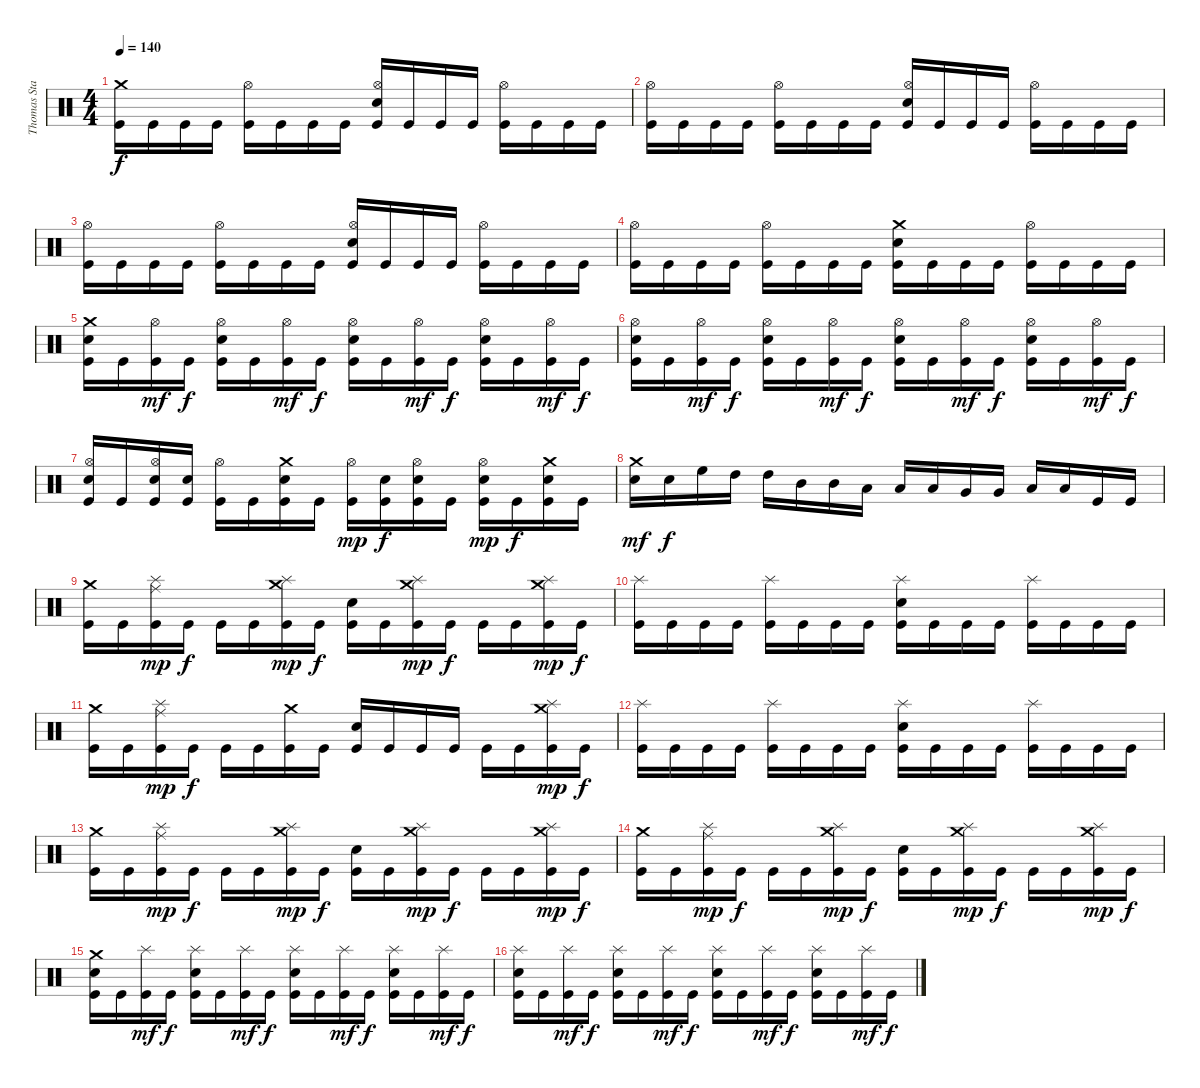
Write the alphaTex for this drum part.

\track ("Thomas Stauch" "Thomas Sta") {instrument percussion}
\staff {score}
\articulation defaults
\ts (4 4)
\tempo 140
\clef neutral
\ks c
("Crash medium (hit)" "Kick (hit)").16{dy f} "Kick (hit)".16 "Kick (hit)".16 "Kick (hit)".16 ("Hi-Hat (open)" "Kick (hit)").16 "Kick (hit)".16 "Kick (hit)".16 "Kick (hit)".16 ("Hi-Hat (open)" "Electric Snare (hit)" "Kick (hit)").16 "Kick (hit)".16 "Kick (hit)".16 "Kick (hit)".16 ("Hi-Hat (open)" "Kick (hit)").16 "Kick (hit)".16 "Kick (hit)".16 "Kick (hit)".16 |
("Hi-Hat (open)" "Kick (hit)").16 "Kick (hit)".16 "Kick (hit)".16 "Kick (hit)".16 ("Hi-Hat (open)" "Kick (hit)").16 "Kick (hit)".16 "Kick (hit)".16 "Kick (hit)".16 ("Hi-Hat (open)" "Electric Snare (hit)" "Kick (hit)").16 "Kick (hit)".16 "Kick (hit)".16 "Kick (hit)".16 ("Hi-Hat (open)" "Kick (hit)").16 "Kick (hit)".16 "Kick (hit)".16 "Kick (hit)".16 |
("Hi-Hat (open)" "Kick (hit)").16 "Kick (hit)".16 "Kick (hit)".16 "Kick (hit)".16 ("Hi-Hat (open)" "Kick (hit)").16 "Kick (hit)".16 "Kick (hit)".16 "Kick (hit)".16 ("Hi-Hat (open)" "Electric Snare (hit)" "Kick (hit)").16 "Kick (hit)".16 "Kick (hit)".16 "Kick (hit)".16 ("Hi-Hat (open)" "Kick (hit)").16 "Kick (hit)".16 "Kick (hit)".16 "Kick (hit)".16 |
("Hi-Hat (open)" "Kick (hit)").16 "Kick (hit)".16 "Kick (hit)".16 "Kick (hit)".16 ("Hi-Hat (open)" "Kick (hit)").16 "Kick (hit)".16 "Kick (hit)".16 "Kick (hit)".16 ("Crash medium (hit)" "Electric Snare (hit)" "Kick (hit)").16 "Kick (hit)".16 "Kick (hit)".16 "Kick (hit)".16 ("Hi-Hat (open)" "Kick (hit)").16 "Kick (hit)".16 "Kick (hit)".16 "Kick (hit)".16 |
("Crash medium (hit)" "Electric Snare (hit)" "Kick (hit)").16 "Kick (hit)".16 ("Hi-Hat (open)" "Kick (hit)").16{dy mf} "Kick (hit)".16{dy f} ("Hi-Hat (open)" "Electric Snare (hit)" "Kick (hit)").16 "Kick (hit)".16 ("Hi-Hat (open)" "Kick (hit)").16{dy mf} "Kick (hit)".16{dy f} ("Hi-Hat (open)" "Electric Snare (hit)" "Kick (hit)").16 "Kick (hit)".16 ("Hi-Hat (open)" "Kick (hit)").16{dy mf} "Kick (hit)".16{dy f} ("Hi-Hat (open)" "Electric Snare (hit)" "Kick (hit)").16 "Kick (hit)".16 ("Hi-Hat (open)" "Kick (hit)").16{dy mf} "Kick (hit)".16{dy f} |
("Hi-Hat (open)" "Electric Snare (hit)" "Kick (hit)").16 "Kick (hit)".16 ("Hi-Hat (open)" "Kick (hit)").16{dy mf} "Kick (hit)".16{dy f} ("Hi-Hat (open)" "Electric Snare (hit)" "Kick (hit)").16 "Kick (hit)".16 ("Hi-Hat (open)" "Kick (hit)").16{dy mf} "Kick (hit)".16{dy f} ("Hi-Hat (open)" "Electric Snare (hit)" "Kick (hit)").16 "Kick (hit)".16 ("Hi-Hat (open)" "Kick (hit)").16{dy mf} "Kick (hit)".16{dy f} ("Hi-Hat (open)" "Electric Snare (hit)" "Kick (hit)").16 "Kick (hit)".16 ("Hi-Hat (open)" "Kick (hit)").16{dy mf} "Kick (hit)".16{dy f} |
("Hi-Hat (open)" "Electric Snare (hit)" "Kick (hit)").16 "Kick (hit)".16 ("Hi-Hat (open)" "Electric Snare (hit)" "Kick (hit)").16 ("Electric Snare (hit)" "Kick (hit)").16 ("Hi-Hat (open)" "Kick (hit)").16 "Kick (hit)".16 ("Crash medium (hit)" "Electric Snare (hit)" "Kick (hit)").16 "Kick (hit)".16 ("Hi-Hat (open)" "Kick (hit)").16{dy mp} ("Electric Snare (hit)" "Kick (hit)").16{dy f} ("Hi-Hat (open)" "Electric Snare (hit)" "Kick (hit)").16 "Kick (hit)".16 ("Hi-Hat (open)" "Electric Snare (hit)" "Kick (hit)").16{dy mp} "Kick (hit)".16{dy f} ("Crash medium (hit)" "Electric Snare (hit)" "Kick (hit)").16 "Kick (hit)".16 |
("Crash medium (hit)" "Electric Snare (hit)").16{dy mf} "Electric Snare (hit)".16{dy f} "High Floor Tom (hit)".16 "High Tom (hit)".16 "High Tom (hit)".16 "Mid Tom (hit)".16 "Mid Tom (hit)".16 "Low Tom (hit)".16 "Low Tom (hit)".16 "Low Tom (hit)".16 "Very Low Tom (hit)".16 "Very Low Tom (hit)".16 "Low Floor Tom (hit)".16 "Low Floor Tom (hit)".16 "Kick (hit)".16 "Kick (hit)".16 |
("Crash medium (hit)" "Kick (hit)").16 "Kick (hit)".16 ("Splash (hit)" "Ride (middle)" "Kick (hit)").16{dy mp} "Kick (hit)".16{dy f} "Kick (hit)".16 "Kick (hit)".16 ("Crash medium (hit)" "Splash (hit)" "Kick (hit)").16{dy mp} "Kick (hit)".16{dy f} ("Electric Snare (hit)" "Kick (hit)").16 "Kick (hit)".16 ("Crash medium (hit)" "Splash (hit)" "Kick (hit)").16{dy mp} "Kick (hit)".16{dy f} "Kick (hit)".16 "Kick (hit)".16 ("Crash medium (hit)" "Splash (hit)" "Kick (hit)").16{dy mp} "Kick (hit)".16{dy f} |
("Splash (hit)" "Kick (hit)").16 "Kick (hit)".16 "Kick (hit)".16 "Kick (hit)".16 ("Splash (hit)" "Kick (hit)").16 "Kick (hit)".16 "Kick (hit)".16 "Kick (hit)".16 ("Splash (hit)" "Electric Snare (hit)" "Kick (hit)").16 "Kick (hit)".16 "Kick (hit)".16 "Kick (hit)".16 ("Splash (hit)" "Kick (hit)").16 "Kick (hit)".16 "Kick (hit)".16 "Kick (hit)".16 |
("Crash medium (hit)" "Kick (hit)").16 "Kick (hit)".16 ("Splash (hit)" "Ride (middle)" "Kick (hit)").16{dy mp} "Kick (hit)".16{dy f} "Kick (hit)".16 "Kick (hit)".16 ("Crash medium (hit)" "Kick (hit)").16 "Kick (hit)".16 ("Electric Snare (hit)" "Kick (hit)").16 "Kick (hit)".16 "Kick (hit)".16 "Kick (hit)".16 "Kick (hit)".16 "Kick (hit)".16 ("Splash (hit)" "Crash medium (hit)" "Kick (hit)").16{dy mp} "Kick (hit)".16{dy f} |
("Splash (hit)" "Kick (hit)").16 "Kick (hit)".16 "Kick (hit)".16 "Kick (hit)".16 ("Splash (hit)" "Kick (hit)").16 "Kick (hit)".16 "Kick (hit)".16 "Kick (hit)".16 ("Splash (hit)" "Electric Snare (hit)" "Kick (hit)").16 "Kick (hit)".16 "Kick (hit)".16 "Kick (hit)".16 ("Splash (hit)" "Kick (hit)").16 "Kick (hit)".16 "Kick (hit)".16 "Kick (hit)".16 |
("Crash medium (hit)" "Kick (hit)").16 "Kick (hit)".16 ("Splash (hit)" "Ride (middle)" "Kick (hit)").16{dy mp} "Kick (hit)".16{dy f} "Kick (hit)".16 "Kick (hit)".16 ("Crash medium (hit)" "Splash (hit)" "Kick (hit)").16{dy mp} "Kick (hit)".16{dy f} ("Electric Snare (hit)" "Kick (hit)").16 "Kick (hit)".16 ("Crash medium (hit)" "Splash (hit)" "Kick (hit)").16{dy mp} "Kick (hit)".16{dy f} "Kick (hit)".16 "Kick (hit)".16 ("Crash medium (hit)" "Splash (hit)" "Kick (hit)").16{dy mp} "Kick (hit)".16{dy f} |
("Crash medium (hit)" "Kick (hit)").16 "Kick (hit)".16 ("Splash (hit)" "Ride (middle)" "Kick (hit)").16{dy mp} "Kick (hit)".16{dy f} "Kick (hit)".16 "Kick (hit)".16 ("Crash medium (hit)" "Splash (hit)" "Kick (hit)").16{dy mp} "Kick (hit)".16{dy f} ("Electric Snare (hit)" "Kick (hit)").16 "Kick (hit)".16 ("Crash medium (hit)" "Splash (hit)" "Kick (hit)").16{dy mp} "Kick (hit)".16{dy f} "Kick (hit)".16 "Kick (hit)".16 ("Crash medium (hit)" "Splash (hit)" "Kick (hit)").16{dy mp} "Kick (hit)".16{dy f} |
("Crash medium (hit)" "Electric Snare (hit)" "Kick (hit)").16 "Kick (hit)".16 ("Splash (hit)" "Kick (hit)").16{dy mf} "Kick (hit)".16{dy f} ("Splash (hit)" "Electric Snare (hit)" "Kick (hit)").16 "Kick (hit)".16 ("Splash (hit)" "Kick (hit)").16{dy mf} "Kick (hit)".16{dy f} ("Splash (hit)" "Electric Snare (hit)" "Kick (hit)").16 "Kick (hit)".16 ("Splash (hit)" "Kick (hit)").16{dy mf} "Kick (hit)".16{dy f} ("Splash (hit)" "Electric Snare (hit)" "Kick (hit)").16 "Kick (hit)".16 ("Splash (hit)" "Kick (hit)").16{dy mf} "Kick (hit)".16{dy f} |
("Splash (hit)" "Electric Snare (hit)" "Kick (hit)").16 "Kick (hit)".16 ("Splash (hit)" "Kick (hit)").16{dy mf} "Kick (hit)".16{dy f} ("Splash (hit)" "Electric Snare (hit)" "Kick (hit)").16 "Kick (hit)".16 ("Splash (hit)" "Kick (hit)").16{dy mf} "Kick (hit)".16{dy f} ("Splash (hit)" "Electric Snare (hit)" "Kick (hit)").16 "Kick (hit)".16 ("Splash (hit)" "Kick (hit)").16{dy mf} "Kick (hit)".16{dy f} ("Splash (hit)" "Electric Snare (hit)" "Kick (hit)").16 "Kick (hit)".16 ("Splash (hit)" "Kick (hit)").16{dy mf} "Kick (hit)".16{dy f}
